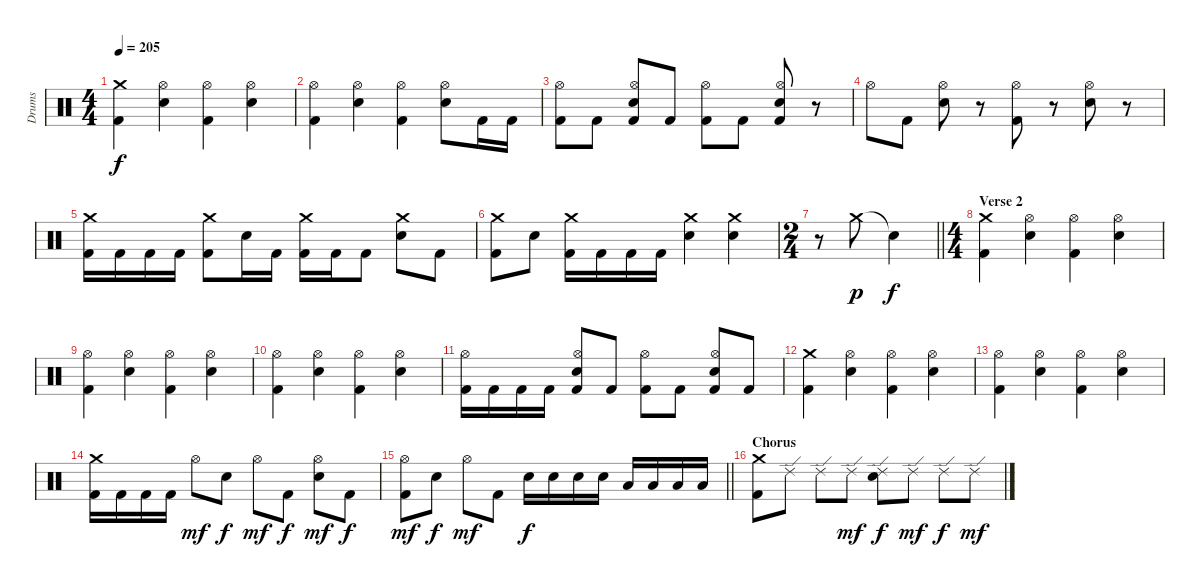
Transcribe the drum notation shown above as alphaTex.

\track ("Drums" "Drums") {instrument percussion}
\staff {score}
\articulation defaults
\ts (4 4)
\tempo 205
\clef neutral
\ks c
("Crash medium (hit)" "Kick (hit) 2").4{dy f} ("Hi-Hat (open)" "Electric Snare (hit)").4 ("Hi-Hat (open)" "Kick (hit) 2").4 ("Hi-Hat (open)" "Electric Snare (hit)").4 |
("Hi-Hat (open)" "Kick (hit) 2").4 ("Hi-Hat (open)" "Electric Snare (hit)").4 ("Hi-Hat (open)" "Kick (hit) 2").4 ("Hi-Hat (open)" "Electric Snare (hit)").8 "Kick (hit) 2".16 "Kick (hit) 2".16 |
("Hi-Hat (open)" "Kick (hit) 2").8 "Kick (hit) 2".8 ("Hi-Hat (open)" "Electric Snare (hit)" "Kick (hit) 2").8 "Kick (hit) 2".8 ("Hi-Hat (open)" "Kick (hit) 2").8 "Kick (hit) 2".8 ("Hi-Hat (open)" "Electric Snare (hit)" "Kick (hit) 2").8 r.8 |
"Hi-Hat (open)".8 "Kick (hit) 2".8 ("Hi-Hat (open)" "Electric Snare (hit)").8 r.8 ("Hi-Hat (open)" "Kick (hit) 2").8 r.8 ("Hi-Hat (open)" "Electric Snare (hit)").8 r.8 |
("Crash medium (hit)" "Kick (hit) 2").16 "Kick (hit) 2".16 "Kick (hit) 2".16 "Kick (hit) 2".16 ("Crash medium (hit)" "Kick (hit) 2").8 "Electric Snare (hit)".16 "Kick (hit) 2".16 ("Crash medium (hit)" "Kick (hit) 2").16 "Kick (hit) 2".16 "Kick (hit) 2".8 ("Crash medium (hit)" "Electric Snare (hit)").8 "Kick (hit) 2".8 |
("Crash medium (hit)" "Kick (hit) 2").8 "Electric Snare (hit)".8 ("Crash medium (hit)" "Kick (hit) 2").16 "Kick (hit) 2".16 "Kick (hit) 2".16 "Kick (hit) 2".16 ("Crash medium (hit)" "Electric Snare (hit)").4 ("Crash medium (hit)" "Electric Snare (hit)").4 |
\ts (2 4)
\barLineRight lightlight
r.8 "Crash medium (hit)".8{dy p volume 0} "Snare (hit)"{t}.4{dy f volume 13} |
\ts (4 4)
\section ("" "Verse 2")
("Crash medium (hit)" "Kick (hit) 2").4 ("Hi-Hat (open)" "Electric Snare (hit)").4 ("Hi-Hat (open)" "Kick (hit) 2").4 ("Hi-Hat (open)" "Electric Snare (hit)").4 |
("Hi-Hat (open)" "Kick (hit) 2").4 ("Hi-Hat (open)" "Electric Snare (hit)").4 ("Hi-Hat (open)" "Kick (hit) 2").4 ("Hi-Hat (open)" "Electric Snare (hit)").4 |
("Hi-Hat (open)" "Kick (hit) 2").4 ("Hi-Hat (open)" "Electric Snare (hit)").4 ("Hi-Hat (open)" "Kick (hit) 2").4 ("Hi-Hat (open)" "Electric Snare (hit)").4 |
("Hi-Hat (open)" "Kick (hit) 2").16 "Kick (hit) 2".16 "Kick (hit) 2".16 "Kick (hit) 2".16 ("Hi-Hat (open)" "Electric Snare (hit)" "Kick (hit) 2").8 "Kick (hit) 2".8 ("Hi-Hat (open)" "Kick (hit) 2").8 "Kick (hit) 2".8 ("Hi-Hat (open)" "Electric Snare (hit)" "Kick (hit) 2").8 "Kick (hit) 2".8 |
("Crash medium (hit)" "Kick (hit) 2").4 ("Hi-Hat (open)" "Electric Snare (hit)").4 ("Hi-Hat (open)" "Kick (hit) 2").4 ("Hi-Hat (open)" "Electric Snare (hit)").4 |
("Hi-Hat (open)" "Kick (hit) 2").4 ("Hi-Hat (open)" "Electric Snare (hit)").4 ("Hi-Hat (open)" "Kick (hit) 2").4 ("Hi-Hat (open)" "Electric Snare (hit)").4 |
("Crash medium (hit)" "Kick (hit) 2").16 "Kick (hit) 2".16 "Kick (hit) 2".16 "Kick (hit) 2".16 "Hi-Hat (open)".8{dy mf} "Electric Snare (hit)".8{dy f} "Hi-Hat (open)".8{dy mf} "Kick (hit) 2".8{dy f} ("Hi-Hat (open)" "Electric Snare (hit)").8{dy mf} "Kick (hit) 2".8{dy f} |
\barLineRight lightlight
("Hi-Hat (open)" "Kick (hit) 2").8{dy mf} "Electric Snare (hit)".8{dy f} "Hi-Hat (open)".8{dy mf} "Kick (hit) 2".8 "Electric Snare (hit)".16{dy f} "Electric Snare (hit)".16 "Electric Snare (hit)".16 "Electric Snare (hit)".16 "Low Floor Tom (hit)".16 "Low Floor Tom (hit)".16 "Low Floor Tom (hit)".16 "Low Floor Tom (hit)".16 |
\section ("" "Chorus")
("Crash medium (hit)" "Kick (hit) 2").8 "Ride (edge) 2".8 "Ride (edge) 2".8 "Ride (edge) 2".8{dy mf} ("Ride (edge) 2" "Electric Snare (hit)").8{dy f} "Ride (edge) 2".8{dy mf} "Ride (edge) 2".8{dy f} "Ride (edge) 2".8{dy mf}
